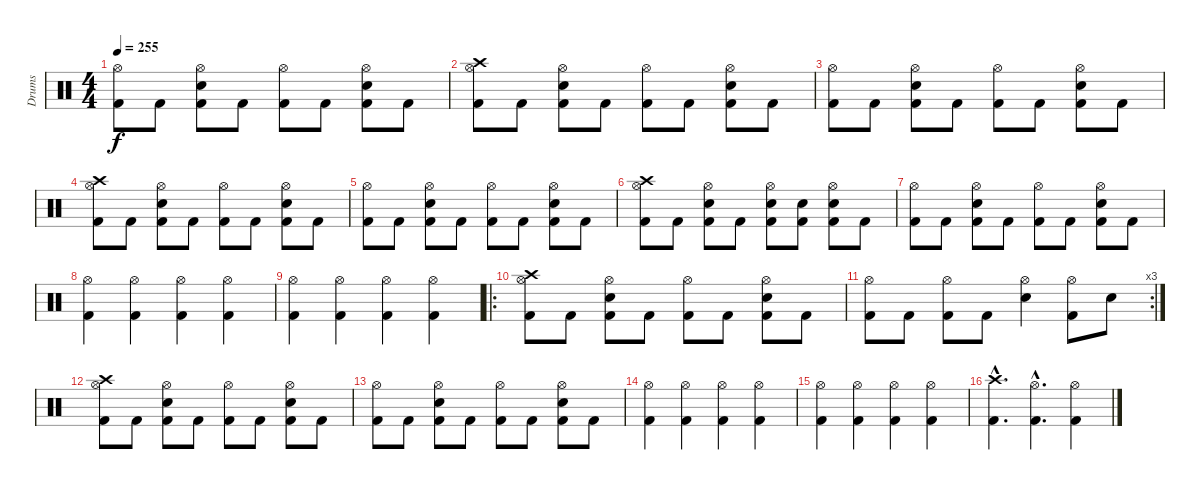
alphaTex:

\track ("Drums" "Drums") {instrument percussion}
\staff {score}
\articulation defaults
\ts (4 4)
\tempo 255
\clef neutral
\ks c
("Hi-Hat (open)" "Kick (hit) 2").8{dy f} "Kick (hit) 2".8 ("Hi-Hat (open)" "Electric Snare (hit)" "Kick (hit) 2").8 "Kick (hit) 2".8 ("Hi-Hat (open)" "Kick (hit) 2").8 "Kick (hit) 2".8 ("Hi-Hat (open)" "Electric Snare (hit)" "Kick (hit) 2").8 "Kick (hit) 2".8 |
("Crash high (hit)" "Hi-Hat (open)" "Kick (hit) 2").8 "Kick (hit) 2".8 ("Hi-Hat (open)" "Electric Snare (hit)" "Kick (hit) 2").8 "Kick (hit) 2".8 ("Hi-Hat (open)" "Kick (hit) 2").8 "Kick (hit) 2".8 ("Hi-Hat (open)" "Electric Snare (hit)" "Kick (hit) 2").8 "Kick (hit) 2".8 |
("Hi-Hat (open)" "Kick (hit) 2").8 "Kick (hit) 2".8 ("Hi-Hat (open)" "Electric Snare (hit)" "Kick (hit) 2").8 "Kick (hit) 2".8 ("Hi-Hat (open)" "Kick (hit) 2").8 "Kick (hit) 2".8 ("Hi-Hat (open)" "Electric Snare (hit)" "Kick (hit) 2").8 "Kick (hit) 2".8 |
("Crash high (hit)" "Hi-Hat (open)" "Kick (hit) 2").8 "Kick (hit) 2".8 ("Hi-Hat (open)" "Electric Snare (hit)" "Kick (hit) 2").8 "Kick (hit) 2".8 ("Hi-Hat (open)" "Kick (hit) 2").8 "Kick (hit) 2".8 ("Hi-Hat (open)" "Electric Snare (hit)" "Kick (hit) 2").8 "Kick (hit) 2".8 |
("Hi-Hat (open)" "Kick (hit) 2").8 "Kick (hit) 2".8 ("Hi-Hat (open)" "Electric Snare (hit)" "Kick (hit) 2").8 "Kick (hit) 2".8 ("Hi-Hat (open)" "Kick (hit) 2").8 "Kick (hit) 2".8 ("Hi-Hat (open)" "Electric Snare (hit)" "Kick (hit) 2").8 "Kick (hit) 2".8 |
("Crash high (hit)" "Hi-Hat (open)" "Kick (hit) 2").8 "Kick (hit) 2".8 ("Hi-Hat (open)" "Electric Snare (hit)" "Kick (hit) 2").8 "Kick (hit) 2".8 ("Hi-Hat (open)" "Electric Snare (hit)" "Kick (hit) 2").8 ("Electric Snare (hit)" "Kick (hit) 2").8 ("Hi-Hat (open)" "Electric Snare (hit)" "Kick (hit) 2").8 "Kick (hit) 2".8 |
("Hi-Hat (open)" "Kick (hit) 2").8 "Kick (hit) 2".8 ("Hi-Hat (open)" "Electric Snare (hit)" "Kick (hit) 2").8 "Kick (hit) 2".8 ("Hi-Hat (open)" "Kick (hit) 2").8 "Kick (hit) 2".8 ("Hi-Hat (open)" "Electric Snare (hit)" "Kick (hit) 2").8 "Kick (hit) 2".8 |
("Hi-Hat (open)" "Kick (hit) 2").4 ("Hi-Hat (open)" "Kick (hit) 2").4 ("Hi-Hat (open)" "Kick (hit) 2").4 ("Hi-Hat (open)" "Kick (hit) 2").4 |
("Hi-Hat (open)" "Kick (hit) 2").4 ("Hi-Hat (open)" "Kick (hit) 2").4 ("Hi-Hat (open)" "Kick (hit) 2").4 ("Hi-Hat (open)" "Kick (hit) 2").4 |
\ro
("Crash high (hit)" "Hi-Hat (open)" "Kick (hit) 2").8 "Kick (hit) 2".8 ("Hi-Hat (open)" "Electric Snare (hit)" "Kick (hit) 2").8 "Kick (hit) 2".8 ("Hi-Hat (open)" "Kick (hit) 2").8 "Kick (hit) 2".8 ("Hi-Hat (open)" "Electric Snare (hit)" "Kick (hit) 2").8 "Kick (hit) 2".8 |
\rc 3
("Hi-Hat (open)" "Kick (hit) 2").8 "Kick (hit) 2".8 ("Hi-Hat (open)" "Kick (hit) 2").8 "Kick (hit) 2".8 ("Hi-Hat (open)" "Electric Snare (hit)").4 ("Hi-Hat (open)" "Kick (hit) 2").8 "Electric Snare (hit)".8 |
("Crash high (hit)" "Hi-Hat (open)" "Kick (hit) 2").8 "Kick (hit) 2".8 ("Hi-Hat (open)" "Electric Snare (hit)" "Kick (hit) 2").8 "Kick (hit) 2".8 ("Hi-Hat (open)" "Kick (hit) 2").8 "Kick (hit) 2".8 ("Hi-Hat (open)" "Electric Snare (hit)" "Kick (hit) 2").8 "Kick (hit) 2".8 |
("Hi-Hat (open)" "Kick (hit) 2").8 "Kick (hit) 2".8 ("Hi-Hat (open)" "Electric Snare (hit)" "Kick (hit) 2").8 "Kick (hit) 2".8 ("Hi-Hat (open)" "Kick (hit) 2").8 "Kick (hit) 2".8 ("Hi-Hat (open)" "Electric Snare (hit)" "Kick (hit) 2").8 "Kick (hit) 2".8 |
("Hi-Hat (open)" "Kick (hit) 2").4 ("Hi-Hat (open)" "Kick (hit) 2").4 ("Hi-Hat (open)" "Kick (hit) 2").4 ("Hi-Hat (open)" "Kick (hit) 2").4 |
("Hi-Hat (open)" "Kick (hit) 2").4 ("Hi-Hat (open)" "Kick (hit) 2").4 ("Hi-Hat (open)" "Kick (hit) 2").4 ("Hi-Hat (open)" "Kick (hit) 2").4 |
("Crash high (hit)"{hac} "Kick (hit) 2"{hac}).4{d} ("Hi-Hat (open)"{hac} "Kick (hit) 2"{hac}).4{d} ("Hi-Hat (open)" "Kick (hit) 2").4
